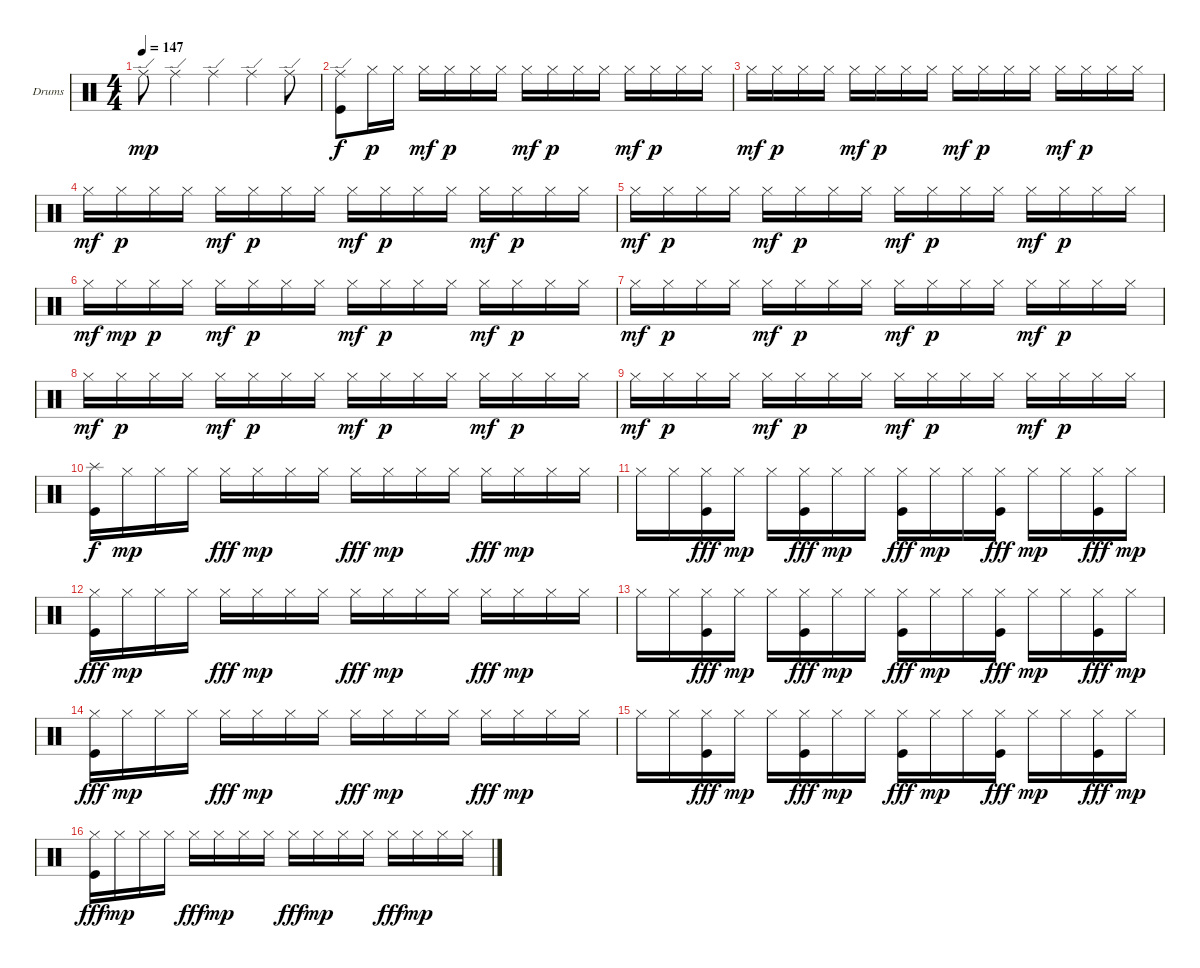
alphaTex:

\bracketExtendMode groupsimilarinstruments
\firstSystemTrackNameOrientation horizontal
\otherSystemsTrackNameOrientation horizontal
\track ("Ударные" "Drums") {instrument percussion}
\staff {score}
\articulation defaults
\ts (4 4)
\tempo 147
\clef neutral
\ks c "Ride (edge)".8{dy mp} "Ride (edge)".4 "Ride (edge)".4 "Ride (edge)".4 "Ride (edge)".8
|
("Ride (edge)" "Kick (hit)").8{dy f} "Hi-Hat (closed)".16{dy p} "Hi-Hat (closed)".16 "Hi-Hat (closed)".16{dy mf} "Hi-Hat (closed)".16{dy p} "Hi-Hat (closed)".16 "Hi-Hat (closed)".16 "Hi-Hat (closed)".16{dy mf} "Hi-Hat (closed)".16{dy p} "Hi-Hat (closed)".16 "Hi-Hat (closed)".16 "Hi-Hat (closed)".16{dy mf} "Hi-Hat (closed)".16{dy p} "Hi-Hat (closed)".16 "Hi-Hat (closed)".16 |
"Hi-Hat (closed)".16{dy mf} "Hi-Hat (closed)".16{dy p} "Hi-Hat (closed)".16 "Hi-Hat (closed)".16 "Hi-Hat (closed)".16{dy mf} "Hi-Hat (closed)".16{dy p} "Hi-Hat (closed)".16 "Hi-Hat (closed)".16 "Hi-Hat (closed)".16{dy mf} "Hi-Hat (closed)".16{dy p} "Hi-Hat (closed)".16 "Hi-Hat (closed)".16 "Hi-Hat (closed)".16{dy mf} "Hi-Hat (closed)".16{dy p} "Hi-Hat (closed)".16 "Hi-Hat (closed)".16 |
"Hi-Hat (closed)".16{dy mf} "Hi-Hat (closed)".16{dy p} "Hi-Hat (closed)".16 "Hi-Hat (closed)".16 "Hi-Hat (closed)".16{dy mf} "Hi-Hat (closed)".16{dy p} "Hi-Hat (closed)".16 "Hi-Hat (closed)".16 "Hi-Hat (closed)".16{dy mf} "Hi-Hat (closed)".16{dy p} "Hi-Hat (closed)".16 "Hi-Hat (closed)".16 "Hi-Hat (closed)".16{dy mf} "Hi-Hat (closed)".16{dy p} "Hi-Hat (closed)".16 "Hi-Hat (closed)".16 |
"Hi-Hat (closed)".16{dy mf} "Hi-Hat (closed)".16{dy p} "Hi-Hat (closed)".16 "Hi-Hat (closed)".16 "Hi-Hat (closed)".16{dy mf} "Hi-Hat (closed)".16{dy p} "Hi-Hat (closed)".16 "Hi-Hat (closed)".16 "Hi-Hat (closed)".16{dy mf} "Hi-Hat (closed)".16{dy p} "Hi-Hat (closed)".16 "Hi-Hat (closed)".16 "Hi-Hat (closed)".16{dy mf} "Hi-Hat (closed)".16{dy p} "Hi-Hat (closed)".16 "Hi-Hat (closed)".16 |
"Hi-Hat (closed)".16{dy mf} "Hi-Hat (closed)".16{dy mp} "Hi-Hat (closed)".16{dy p} "Hi-Hat (closed)".16 "Hi-Hat (closed)".16{dy mf} "Hi-Hat (closed)".16{dy p} "Hi-Hat (closed)".16 "Hi-Hat (closed)".16 "Hi-Hat (closed)".16{dy mf} "Hi-Hat (closed)".16{dy p} "Hi-Hat (closed)".16 "Hi-Hat (closed)".16 "Hi-Hat (closed)".16{dy mf} "Hi-Hat (closed)".16{dy p} "Hi-Hat (closed)".16 "Hi-Hat (closed)".16 |
"Hi-Hat (closed)".16{dy mf} "Hi-Hat (closed)".16{dy p} "Hi-Hat (closed)".16 "Hi-Hat (closed)".16 "Hi-Hat (closed)".16{dy mf} "Hi-Hat (closed)".16{dy p} "Hi-Hat (closed)".16 "Hi-Hat (closed)".16 "Hi-Hat (closed)".16{dy mf} "Hi-Hat (closed)".16{dy p} "Hi-Hat (closed)".16 "Hi-Hat (closed)".16 "Hi-Hat (closed)".16{dy mf} "Hi-Hat (closed)".16{dy p} "Hi-Hat (closed)".16 "Hi-Hat (closed)".16 |
"Hi-Hat (closed)".16{dy mf} "Hi-Hat (closed)".16{dy p} "Hi-Hat (closed)".16 "Hi-Hat (closed)".16 "Hi-Hat (closed)".16{dy mf} "Hi-Hat (closed)".16{dy p} "Hi-Hat (closed)".16 "Hi-Hat (closed)".16 "Hi-Hat (closed)".16{dy mf} "Hi-Hat (closed)".16{dy p} "Hi-Hat (closed)".16 "Hi-Hat (closed)".16 "Hi-Hat (closed)".16{dy mf} "Hi-Hat (closed)".16{dy p} "Hi-Hat (closed)".16 "Hi-Hat (closed)".16 |
"Hi-Hat (closed)".16{dy mf} "Hi-Hat (closed)".16{dy p} "Hi-Hat (closed)".16 "Hi-Hat (closed)".16 "Hi-Hat (closed)".16{dy mf} "Hi-Hat (closed)".16{dy p} "Hi-Hat (closed)".16 "Hi-Hat (closed)".16 "Hi-Hat (closed)".16{dy mf} "Hi-Hat (closed)".16{dy p} "Hi-Hat (closed)".16 "Hi-Hat (closed)".16 "Hi-Hat (closed)".16{dy mf} "Hi-Hat (closed)".16{dy p} "Hi-Hat (closed)".16 "Hi-Hat (closed)".16 |
("Splash (hit)" "Kick (hit)").16{dy f} "Hi-Hat (closed)".16{dy mp} "Hi-Hat (closed)".16 "Hi-Hat (closed)".16 "Hi-Hat (closed)".16{dy fff} "Hi-Hat (closed)".16{dy mp} "Hi-Hat (closed)".16 "Hi-Hat (closed)".16 "Hi-Hat (closed)".16{dy fff} "Hi-Hat (closed)".16{dy mp} "Hi-Hat (closed)".16 "Hi-Hat (closed)".16 "Hi-Hat (closed)".16{dy fff} "Hi-Hat (closed)".16{dy mp} "Hi-Hat (closed)".16 "Hi-Hat (closed)".16 |
"Hi-Hat (closed)".16 "Hi-Hat (closed)".16 ("Hi-Hat (closed)" "Kick (hit)").16{dy fff} "Hi-Hat (closed)".16{dy mp} "Hi-Hat (closed)".16 ("Hi-Hat (closed)" "Kick (hit)").16{dy fff} "Hi-Hat (closed)".16{dy mp} "Hi-Hat (closed)".16 ("Hi-Hat (closed)" "Kick (hit)").16{dy fff} "Hi-Hat (closed)".16{dy mp} "Hi-Hat (closed)".16 ("Hi-Hat (closed)" "Kick (hit)").16{dy fff} "Hi-Hat (closed)".16{dy mp} "Hi-Hat (closed)".16 ("Hi-Hat (closed)" "Kick (hit)").16{dy fff} "Hi-Hat (closed)".16{dy mp} |
("Hi-Hat (closed)" "Kick (hit)").16{dy fff} "Hi-Hat (closed)".16{dy mp} "Hi-Hat (closed)".16 "Hi-Hat (closed)".16 "Hi-Hat (closed)".16{dy fff} "Hi-Hat (closed)".16{dy mp} "Hi-Hat (closed)".16 "Hi-Hat (closed)".16 "Hi-Hat (closed)".16{dy fff} "Hi-Hat (closed)".16{dy mp} "Hi-Hat (closed)".16 "Hi-Hat (closed)".16 "Hi-Hat (closed)".16{dy fff} "Hi-Hat (closed)".16{dy mp} "Hi-Hat (closed)".16 "Hi-Hat (closed)".16 |
"Hi-Hat (closed)".16 "Hi-Hat (closed)".16 ("Hi-Hat (closed)" "Kick (hit)").16{dy fff} "Hi-Hat (closed)".16{dy mp} "Hi-Hat (closed)".16 ("Hi-Hat (closed)" "Kick (hit)").16{dy fff} "Hi-Hat (closed)".16{dy mp} "Hi-Hat (closed)".16 ("Hi-Hat (closed)" "Kick (hit)").16{dy fff} "Hi-Hat (closed)".16{dy mp} "Hi-Hat (closed)".16 ("Hi-Hat (closed)" "Kick (hit)").16{dy fff} "Hi-Hat (closed)".16{dy mp} "Hi-Hat (closed)".16 ("Hi-Hat (closed)" "Kick (hit)").16{dy fff} "Hi-Hat (closed)".16{dy mp} |
("Hi-Hat (closed)" "Kick (hit)").16{dy fff} "Hi-Hat (closed)".16{dy mp} "Hi-Hat (closed)".16 "Hi-Hat (closed)".16 "Hi-Hat (closed)".16{dy fff} "Hi-Hat (closed)".16{dy mp} "Hi-Hat (closed)".16 "Hi-Hat (closed)".16 "Hi-Hat (closed)".16{dy fff} "Hi-Hat (closed)".16{dy mp} "Hi-Hat (closed)".16 "Hi-Hat (closed)".16 "Hi-Hat (closed)".16{dy fff} "Hi-Hat (closed)".16{dy mp} "Hi-Hat (closed)".16 "Hi-Hat (closed)".16 |
"Hi-Hat (closed)".16 "Hi-Hat (closed)".16 ("Hi-Hat (closed)" "Kick (hit)").16{dy fff} "Hi-Hat (closed)".16{dy mp} "Hi-Hat (closed)".16 ("Hi-Hat (closed)" "Kick (hit)").16{dy fff} "Hi-Hat (closed)".16{dy mp} "Hi-Hat (closed)".16 ("Hi-Hat (closed)" "Kick (hit)").16{dy fff} "Hi-Hat (closed)".16{dy mp} "Hi-Hat (closed)".16 ("Hi-Hat (closed)" "Kick (hit)").16{dy fff} "Hi-Hat (closed)".16{dy mp} "Hi-Hat (closed)".16 ("Hi-Hat (closed)" "Kick (hit)").16{dy fff} "Hi-Hat (closed)".16{dy mp} |
("Hi-Hat (closed)" "Kick (hit)").16{dy fff} "Hi-Hat (closed)".16{dy mp} "Hi-Hat (closed)".16 "Hi-Hat (closed)".16 "Hi-Hat (closed)".16{dy fff} "Hi-Hat (closed)".16{dy mp} "Hi-Hat (closed)".16 "Hi-Hat (closed)".16 "Hi-Hat (closed)".16{dy fff} "Hi-Hat (closed)".16{dy mp} "Hi-Hat (closed)".16 "Hi-Hat (closed)".16 "Hi-Hat (closed)".16{dy fff} "Hi-Hat (closed)".16{dy mp} "Hi-Hat (closed)".16 "Hi-Hat (closed)".16
